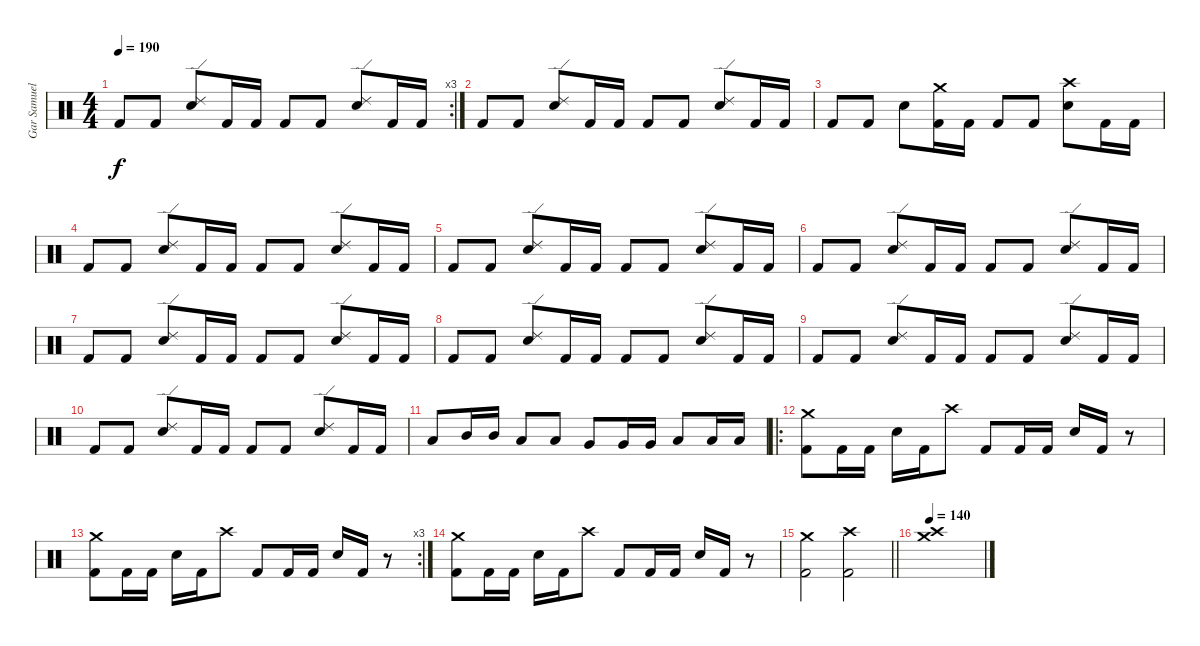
\track ("Gar Samuelson" "Gar Samuel") {instrument percussion}
\staff {score}
\articulation defaults
\rc 3
\ts (4 4)
\tempo 190
\clef neutral
\ks c "Kick (hit) 2".8{dy f} "Kick (hit) 2".8
("Ride (edge) 2" "Snare (hit) 2").8 "Kick (hit) 2".16 "Kick (hit) 2".16 "Kick (hit) 2".8 "Kick (hit) 2".8 ("Ride (edge) 2" "Snare (hit) 2").8 "Kick (hit) 2".16 "Kick (hit) 2".16 |
"Kick (hit) 2".8 "Kick (hit) 2".8 ("Ride (edge) 2" "Snare (hit) 2").8 "Kick (hit) 2".16 "Kick (hit) 2".16 "Kick (hit) 2".8 "Kick (hit) 2".8 ("Ride (edge) 2" "Snare (hit) 2").8 "Kick (hit) 2".16 "Kick (hit) 2".16 |
"Kick (hit) 2".8 "Kick (hit) 2".8 "Snare (hit) 2".8 ("Crash medium (hit)" "Kick (hit) 2").16 "Kick (hit) 2".16 "Kick (hit) 2".8 "Kick (hit) 2".8 ("Crash high (hit)" "Snare (hit) 2").8 "Kick (hit) 2".16 "Kick (hit) 2".16 |
"Kick (hit) 2".8 "Kick (hit) 2".8 ("Ride (edge) 2" "Snare (hit) 2").8 "Kick (hit) 2".16 "Kick (hit) 2".16 "Kick (hit) 2".8 "Kick (hit) 2".8 ("Ride (edge) 2" "Snare (hit) 2").8 "Kick (hit) 2".16 "Kick (hit) 2".16 |
"Kick (hit) 2".8 "Kick (hit) 2".8 ("Ride (edge) 2" "Snare (hit) 2").8 "Kick (hit) 2".16 "Kick (hit) 2".16 "Kick (hit) 2".8 "Kick (hit) 2".8 ("Ride (edge) 2" "Snare (hit) 2").8 "Kick (hit) 2".16 "Kick (hit) 2".16 |
"Kick (hit) 2".8 "Kick (hit) 2".8 ("Ride (edge) 2" "Snare (hit) 2").8 "Kick (hit) 2".16 "Kick (hit) 2".16 "Kick (hit) 2".8 "Kick (hit) 2".8 ("Ride (edge) 2" "Snare (hit) 2").8 "Kick (hit) 2".16 "Kick (hit) 2".16 |
"Kick (hit) 2".8 "Kick (hit) 2".8 ("Ride (edge) 2" "Snare (hit) 2").8 "Kick (hit) 2".16 "Kick (hit) 2".16 "Kick (hit) 2".8 "Kick (hit) 2".8 ("Ride (edge) 2" "Snare (hit) 2").8 "Kick (hit) 2".16 "Kick (hit) 2".16 |
"Kick (hit) 2".8 "Kick (hit) 2".8 ("Ride (edge) 2" "Snare (hit) 2").8 "Kick (hit) 2".16 "Kick (hit) 2".16 "Kick (hit) 2".8 "Kick (hit) 2".8 ("Ride (edge) 2" "Snare (hit) 2").8 "Kick (hit) 2".16 "Kick (hit) 2".16 |
"Kick (hit) 2".8 "Kick (hit) 2".8 ("Ride (edge) 2" "Snare (hit) 2").8 "Kick (hit) 2".16 "Kick (hit) 2".16 "Kick (hit) 2".8 "Kick (hit) 2".8 ("Ride (edge) 2" "Snare (hit) 2").8 "Kick (hit) 2".16 "Kick (hit) 2".16 |
"Kick (hit) 2".8 "Kick (hit) 2".8 ("Ride (edge) 2" "Snare (hit) 2").8 "Kick (hit) 2".16 "Kick (hit) 2".16 "Kick (hit) 2".8 "Kick (hit) 2".8 ("Ride (edge) 2" "Snare (hit) 2").8 "Kick (hit) 2".16 "Kick (hit) 2".16 |
"Low Tom (hit)".8 "Mid Tom (hit)".16 "Mid Tom (hit)".16 "Low Tom (hit)".8 "Low Tom (hit)".8 "Very Low Tom (hit)".8 "Very Low Tom (hit)".16 "Very Low Tom (hit)".16 "Low Floor Tom (hit)".8 "Low Floor Tom (hit)".16 "Low Floor Tom (hit)".16 |
\ro
("Crash medium (hit)" "Kick (hit) 2").8 "Kick (hit) 2".16 "Kick (hit) 2".16 "Snare (hit) 2".16 "Kick (hit) 2".16 "Crash high (hit)".8 "Kick (hit) 2".8 "Kick (hit) 2".16 "Kick (hit) 2".16 "Snare (hit) 2".16 "Kick (hit) 2".16 r.8 |
\rc 3
("Crash medium (hit)" "Kick (hit) 2").8 "Kick (hit) 2".16 "Kick (hit) 2".16 "Snare (hit) 2".16 "Kick (hit) 2".16 "Crash high (hit)".8 "Kick (hit) 2".8 "Kick (hit) 2".16 "Kick (hit) 2".16 "Snare (hit) 2".16 "Kick (hit) 2".16 r.8 |
("Crash medium (hit)" "Kick (hit) 2").8 "Kick (hit) 2".16 "Kick (hit) 2".16 "Snare (hit) 2".16 "Kick (hit) 2".16 "Crash high (hit)".8 "Kick (hit) 2".8 "Kick (hit) 2".16 "Kick (hit) 2".16 "Snare (hit) 2".16 "Kick (hit) 2".16 r.8 |
\barLineRight lightlight
("Crash medium (hit)" "Kick (hit) 2").2 ("Crash high (hit)" "Kick (hit) 2").2 |
\tempo 140
("Crash medium (hit)" "Crash high (hit)").1
